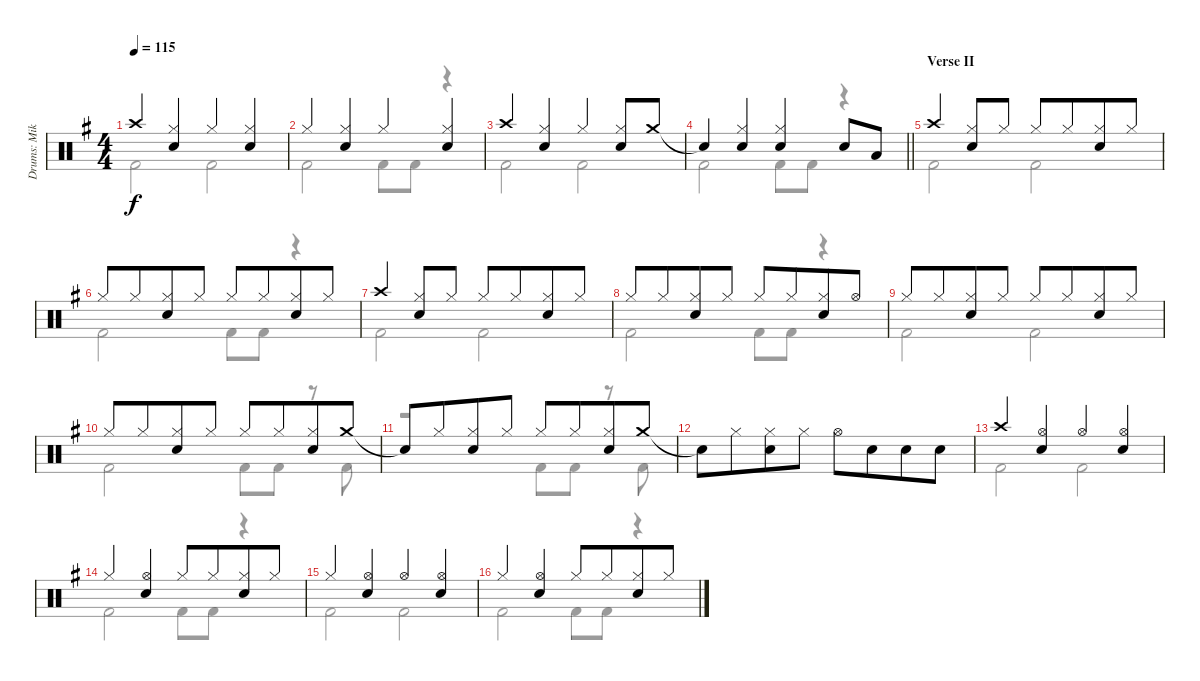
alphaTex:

\track ("Drums: Mikkey" "Drums: Mik") {instrument percussion}
\staff {score}
\articulation defaults
\voice
\ts (4 4)
\tempo 115
\clef neutral
\ks g "Crash high (hit)".4{dy f}
("Hi-Hat (closed)" "Snare (hit) 2").4 "Hi-Hat (closed)".4 ("Hi-Hat (closed)" "Snare (hit) 2").4 |
"Hi-Hat (closed)".4 ("Hi-Hat (closed)" "Snare (hit) 2").4 "Hi-Hat (closed)".4 ("Hi-Hat (closed)" "Snare (hit) 2").4 |
"Crash high (hit)".4 ("Hi-Hat (closed)" "Snare (hit) 2").4 "Hi-Hat (closed)".4 ("Hi-Hat (closed)" "Snare (hit) 2").8 "Crash medium (hit)".8 |
\barLineRight lightlight "Snare (hit)"{t}.4
("Hi-Hat (closed)" "Snare (hit) 2").4 ("Hi-Hat (closed)" "Snare (hit) 2").4 "Snare (hit) 2".8 "Low Tom (hit)".8 |
\section ("" "Verse II")
"Crash high (hit)".4 ("Hi-Hat (closed)" "Snare (hit) 2").8 "Hi-Hat (closed)".8 "Hi-Hat (closed)".8 "Hi-Hat (closed)".8{beam merge} ("Hi-Hat (closed)" "Snare (hit) 2").8 "Hi-Hat (closed)".8 |
"Hi-Hat (closed)".8 "Hi-Hat (closed)".8{beam merge} ("Hi-Hat (closed)" "Snare (hit) 2").8 "Hi-Hat (closed)".8 "Hi-Hat (closed)".8 "Hi-Hat (closed)".8{beam merge} ("Hi-Hat (closed)" "Snare (hit) 2").8 "Hi-Hat (closed)".8 |
"Crash high (hit)".4 ("Hi-Hat (closed)" "Snare (hit) 2").8 "Hi-Hat (closed)".8 "Hi-Hat (closed)".8 "Hi-Hat (closed)".8{beam merge} ("Hi-Hat (closed)" "Snare (hit) 2").8 "Hi-Hat (closed)".8 |
"Hi-Hat (closed)".8 "Hi-Hat (closed)".8{beam merge} ("Hi-Hat (closed)" "Snare (hit) 2").8 "Hi-Hat (closed)".8 "Hi-Hat (closed)".8 "Hi-Hat (closed)".8{beam merge} ("Hi-Hat (closed)" "Snare (hit) 2").8 "Hi-Hat (open)".8 |
"Hi-Hat (closed)".8 "Hi-Hat (closed)".8{beam merge} ("Hi-Hat (closed)" "Snare (hit) 2").8 "Hi-Hat (closed)".8 "Hi-Hat (closed)".8 "Hi-Hat (closed)".8{beam merge} ("Hi-Hat (closed)" "Snare (hit) 2").8 "Hi-Hat (closed)".8 |
"Hi-Hat (closed)".8 "Hi-Hat (closed)".8{beam merge} ("Hi-Hat (closed)" "Snare (hit) 2").8 "Hi-Hat (closed)".8 "Hi-Hat (closed)".8 "Hi-Hat (closed)".8{beam merge} ("Hi-Hat (closed)" "Snare (hit) 2").8 "Crash medium (hit)".8 |
"Snare (hit)"{t}.8 "Hi-Hat (closed)".8{beam merge} ("Hi-Hat (closed)" "Snare (hit) 2").8 "Hi-Hat (closed)".8 "Hi-Hat (closed)".8 "Hi-Hat (closed)".8{beam merge} ("Hi-Hat (closed)" "Snare (hit) 2").8 "Crash medium (hit)".8 |
"Snare (hit)"{t}.8 "Hi-Hat (closed)".8{beam merge} ("Hi-Hat (closed)" "Snare (hit) 2").8 "Hi-Hat (closed)".8 "Hi-Hat (open)".8 "Snare (hit) 2".8{beam merge} "Snare (hit) 2".8 "Snare (hit) 2".8 |
"Crash high (hit)".4 ("Hi-Hat (open)" "Snare (hit) 2").4 "Hi-Hat (open)".4 ("Hi-Hat (open)" "Snare (hit) 2").4 |
"Hi-Hat (closed)".4 ("Hi-Hat (open)" "Snare (hit) 2").4 "Hi-Hat (closed)".8 "Hi-Hat (closed)".8{beam merge} ("Hi-Hat (closed)" "Snare (hit) 2").8 "Hi-Hat (closed)".8 |
"Hi-Hat (closed)".4 ("Hi-Hat (open)" "Snare (hit) 2").4 "Hi-Hat (open)".4 ("Hi-Hat (open)" "Snare (hit) 2").4 |
"Hi-Hat (closed)".4 ("Hi-Hat (open)" "Snare (hit) 2").4 "Hi-Hat (closed)".8 "Hi-Hat (closed)".8{beam merge} ("Hi-Hat (closed)" "Snare (hit) 2").8 "Hi-Hat (closed)".8
\voice
\clef neutral
\ottava regular
\simile none
\ks g "Kick (hit) 2".2{dy f} "Kick (hit) 2".2
|
"Kick (hit) 2".2 "Kick (hit) 2".8 "Kick (hit) 2".8 r.4 |
"Kick (hit) 2".2 "Kick (hit) 2".2 |
\barLineRight lightlight "Kick (hit) 2".2 "Kick (hit) 2".8 "Kick (hit) 2".8
r.4 |
"Kick (hit) 2".2 "Kick (hit) 2".2 |
"Kick (hit) 2".2 "Kick (hit) 2".8 "Kick (hit) 2".8 r.4 |
"Kick (hit) 2".2 "Kick (hit) 2".2 |
"Kick (hit) 2".2 "Kick (hit) 2".8 "Kick (hit) 2".8 r.4 |
"Kick (hit) 2".2 "Kick (hit) 2".2 |
"Kick (hit) 2".2 "Kick (hit) 2".8 "Kick (hit) 2".8 r.8 "Kick (hit) 2".8 |
r.2 "Kick (hit) 2".8 "Kick (hit) 2".8 r.8 "Kick (hit) 2".8 |
|
"Kick (hit) 2".2 "Kick (hit) 2".2 |
"Kick (hit) 2".2 "Kick (hit) 2".8 "Kick (hit) 2".8 r.4 |
"Kick (hit) 2".2 "Kick (hit) 2".2 |
"Kick (hit) 2".2 "Kick (hit) 2".8 "Kick (hit) 2".8 r.4
